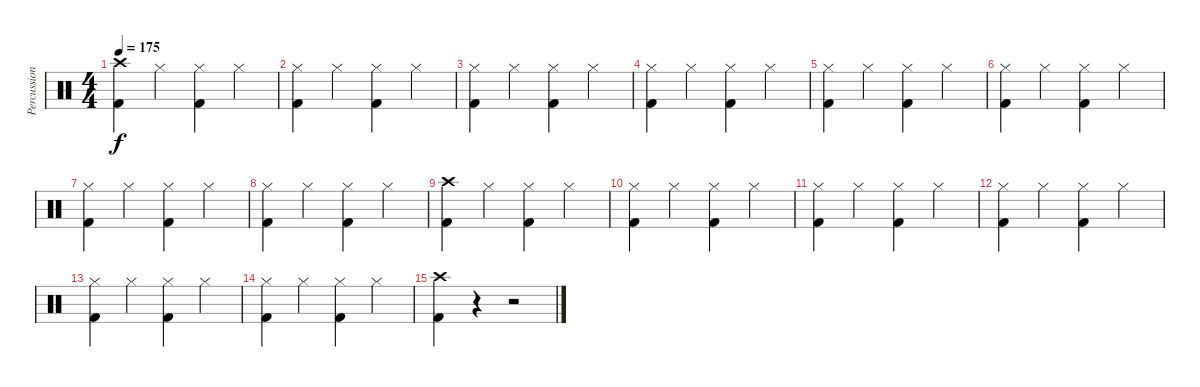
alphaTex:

\track ("Percussion" "Percussion") {instrument percussion}
\staff {score}
\articulation defaults
\ts (4 4)
\tempo 175
\clef neutral
\ks c
("Crash high (hit)" "Kick (hit) 2").4{dy f} "Hi-Hat (closed)".4 ("Hi-Hat (closed)" "Kick (hit) 2").4 "Hi-Hat (closed)".4 |
("Hi-Hat (closed)" "Kick (hit) 2").4 "Hi-Hat (closed)".4 ("Hi-Hat (closed)" "Kick (hit) 2").4 "Hi-Hat (closed)".4 |
("Hi-Hat (closed)" "Kick (hit) 2").4 "Hi-Hat (closed)".4 ("Hi-Hat (closed)" "Kick (hit) 2").4 "Hi-Hat (closed)".4 |
("Hi-Hat (closed)" "Kick (hit) 2").4 "Hi-Hat (closed)".4 ("Hi-Hat (closed)" "Kick (hit) 2").4 "Hi-Hat (closed)".4 |
("Hi-Hat (closed)" "Kick (hit) 2").4 "Hi-Hat (closed)".4 ("Hi-Hat (closed)" "Kick (hit) 2").4 "Hi-Hat (closed)".4 |
("Hi-Hat (closed)" "Kick (hit) 2").4 "Hi-Hat (closed)".4 ("Hi-Hat (closed)" "Kick (hit) 2").4 "Hi-Hat (closed)".4 |
("Hi-Hat (closed)" "Kick (hit) 2").4 "Hi-Hat (closed)".4 ("Hi-Hat (closed)" "Kick (hit) 2").4 "Hi-Hat (closed)".4 |
("Hi-Hat (closed)" "Kick (hit) 2").4 "Hi-Hat (closed)".4 ("Hi-Hat (closed)" "Kick (hit) 2").4 "Hi-Hat (closed)".4 |
("Crash high (hit)" "Kick (hit) 2").4 "Hi-Hat (closed)".4 ("Hi-Hat (closed)" "Kick (hit) 2").4 "Hi-Hat (closed)".4 |
("Hi-Hat (closed)" "Kick (hit) 2").4 "Hi-Hat (closed)".4 ("Hi-Hat (closed)" "Kick (hit) 2").4 "Hi-Hat (closed)".4 |
("Hi-Hat (closed)" "Kick (hit) 2").4 "Hi-Hat (closed)".4 ("Hi-Hat (closed)" "Kick (hit) 2").4 "Hi-Hat (closed)".4 |
("Hi-Hat (closed)" "Kick (hit) 2").4 "Hi-Hat (closed)".4 ("Hi-Hat (closed)" "Kick (hit) 2").4 "Hi-Hat (closed)".4 |
("Hi-Hat (closed)" "Kick (hit) 2").4 "Hi-Hat (closed)".4 ("Hi-Hat (closed)" "Kick (hit) 2").4 "Hi-Hat (closed)".4 |
("Hi-Hat (closed)" "Kick (hit) 2").4 "Hi-Hat (closed)".4 ("Hi-Hat (closed)" "Kick (hit) 2").4 "Hi-Hat (closed)".4 |
("Crash high (hit)" "Kick (hit) 2").4 r.4 r.2
